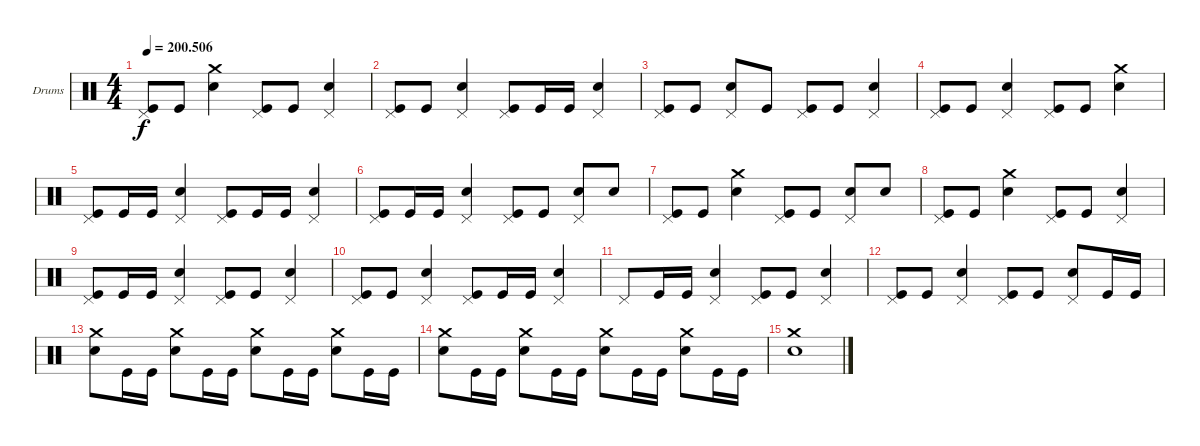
\bracketExtendMode groupsimilarinstruments
\firstSystemTrackNameOrientation horizontal
\otherSystemsTrackNameOrientation horizontal
\track ("Drums" "Drums") {instrument percussion}
\staff {score}
\articulation defaults
\ts (4 4)
\tempo
200.506
\accidentals auto
\clef neutral
\ottava regular
\simile none
\ks c
("Pedal Hi-Hat (hit)" "Kick (hit)").8{dy f} "Kick (hit)".8 ("Crash medium (hit)" "Snare (hit) 2").4 ("Pedal Hi-Hat (hit)" "Kick (hit)").8 "Kick (hit)".8 ("Pedal Hi-Hat (hit)" "Snare (hit) 2").4 |
("Pedal Hi-Hat (hit)" "Kick (hit)").8 "Kick (hit)".8 ("Pedal Hi-Hat (hit)" "Snare (hit) 2").4 ("Pedal Hi-Hat (hit)" "Kick (hit)").8 "Kick (hit)".16 "Kick (hit)".16 ("Pedal Hi-Hat (hit)" "Snare (hit) 2").4 |
("Pedal Hi-Hat (hit)" "Kick (hit)").8 "Kick (hit)".8 ("Pedal Hi-Hat (hit)" "Snare (hit) 2").8 "Kick (hit)".8 ("Pedal Hi-Hat (hit)" "Kick (hit)").8 "Kick (hit)".8 ("Pedal Hi-Hat (hit)" "Snare (hit) 2").4 |
("Pedal Hi-Hat (hit)" "Kick (hit)").8 "Kick (hit)".8 ("Pedal Hi-Hat (hit)" "Snare (hit) 2").4 ("Pedal Hi-Hat (hit)" "Kick (hit)").8 "Kick (hit)".8 ("Snare (hit) 2" "Crash medium (hit)").4 |
("Pedal Hi-Hat (hit)" "Kick (hit)").8 "Kick (hit)".16 "Kick (hit)".16 ("Pedal Hi-Hat (hit)" "Snare (hit) 2").4 ("Pedal Hi-Hat (hit)" "Kick (hit)").8 "Kick (hit)".16 "Kick (hit)".16 ("Pedal Hi-Hat (hit)" "Snare (hit) 2").4 |
("Pedal Hi-Hat (hit)" "Kick (hit)").8 "Kick (hit)".16 "Kick (hit)".16 ("Pedal Hi-Hat (hit)" "Snare (hit) 2").4 ("Pedal Hi-Hat (hit)" "Kick (hit)").8 "Kick (hit)".8 ("Pedal Hi-Hat (hit)" "Snare (hit) 2").8 "Snare (hit) 2".8 |
("Pedal Hi-Hat (hit)" "Kick (hit)").8 "Kick (hit)".8 ("Snare (hit) 2" "Crash medium (hit)").4 ("Pedal Hi-Hat (hit)" "Kick (hit)").8 "Kick (hit)".8 ("Pedal Hi-Hat (hit)" "Snare (hit) 2").8 "Snare (hit) 2".8 |
("Pedal Hi-Hat (hit)" "Kick (hit)").8 "Kick (hit)".8 ("Snare (hit) 2" "Crash medium (hit)").4 ("Pedal Hi-Hat (hit)" "Kick (hit)").8 "Kick (hit)".8 ("Pedal Hi-Hat (hit)" "Snare (hit) 2").4 |
("Pedal Hi-Hat (hit)" "Kick (hit)").8 "Kick (hit)".16 "Kick (hit)".16 ("Snare (hit) 2" "Pedal Hi-Hat (hit)").4 ("Pedal Hi-Hat (hit)" "Kick (hit)").8 "Kick (hit)".8 ("Pedal Hi-Hat (hit)" "Snare (hit) 2").4 |
("Pedal Hi-Hat (hit)" "Kick (hit)").8 "Kick (hit)".8 ("Snare (hit) 2" "Pedal Hi-Hat (hit)").4 ("Pedal Hi-Hat (hit)" "Kick (hit)").8 "Kick (hit)".16 "Kick (hit)".16 ("Pedal Hi-Hat (hit)" "Snare (hit) 2").4 |
"Pedal Hi-Hat (hit)".8 "Kick (hit)".16 "Kick (hit)".16 ("Pedal Hi-Hat (hit)" "Snare (hit) 2").4 ("Kick (hit)" "Pedal Hi-Hat (hit)").8 "Kick (hit)".8 ("Pedal Hi-Hat (hit)" "Snare (hit) 2").4 |
("Pedal Hi-Hat (hit)" "Kick (hit)").8 "Kick (hit)".8 ("Pedal Hi-Hat (hit)" "Snare (hit) 2").4 ("Pedal Hi-Hat (hit)" "Kick (hit)").8 "Kick (hit)".8 ("Pedal Hi-Hat (hit)" "Snare (hit) 2").8 "Kick (hit)".16 "Kick (hit)".16 |
("Crash medium (hit)" "Snare (hit) 2").8 "Kick (hit)".16 "Kick (hit)".16 ("Crash medium (hit)" "Snare (hit) 2").8 "Kick (hit)".16 "Kick (hit)".16 ("Crash medium (hit)" "Snare (hit) 2").8 "Kick (hit)".16 "Kick (hit)".16 ("Crash medium (hit)" "Snare (hit) 2").8 "Kick (hit)".16 "Kick (hit)".16 |
("Crash medium (hit)" "Snare (hit) 2").8 "Kick (hit)".16 "Kick (hit)".16 ("Crash medium (hit)" "Snare (hit) 2").8 "Kick (hit)".16 "Kick (hit)".16 ("Crash medium (hit)" "Snare (hit) 2").8 "Kick (hit)".16 "Kick (hit)".16 ("Crash medium (hit)" "Snare (hit) 2").8 "Kick (hit)".16 "Kick (hit)".16 |
("Snare (hit) 2" "Crash medium (hit)").1
